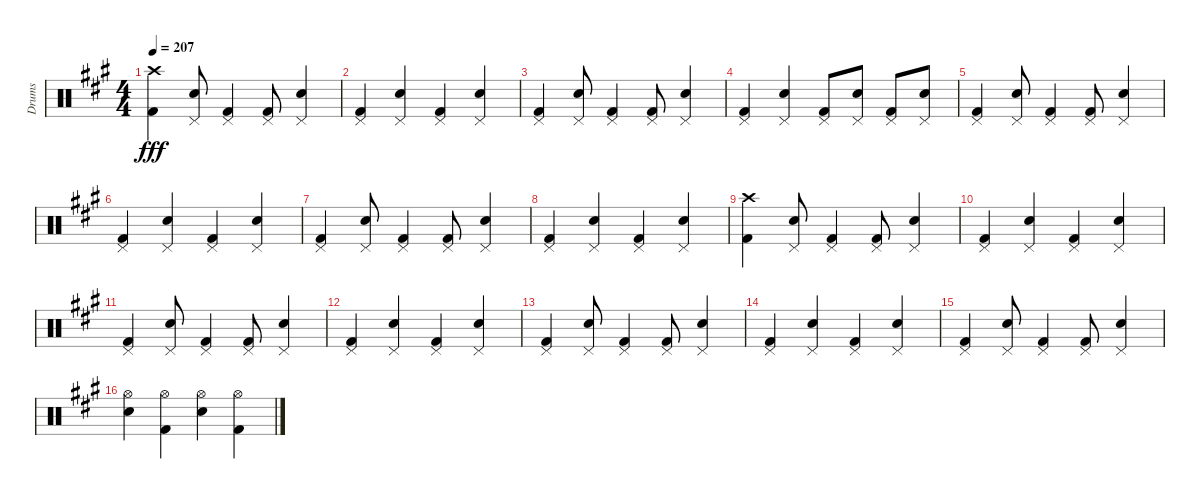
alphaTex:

\track ("Drums" "Drums") {instrument percussion}
\staff {score}
\articulation defaults
\ts (4 4)
\tempo 207
\clef neutral
\ks a
("Crash high (hit)" "Kick (hit) 2").4{dy fff} ("Pedal Hi-Hat (hit)" "Snare (hit) 2").8 ("Pedal Hi-Hat (hit)" "Kick (hit) 2").4 ("Pedal Hi-Hat (hit)" "Kick (hit) 2").8 ("Pedal Hi-Hat (hit)" "Snare (hit) 2").4 |
("Pedal Hi-Hat (hit)" "Kick (hit) 2").4 ("Pedal Hi-Hat (hit)" "Snare (hit) 2").4 ("Pedal Hi-Hat (hit)" "Kick (hit) 2").4 ("Pedal Hi-Hat (hit)" "Snare (hit) 2").4 |
("Pedal Hi-Hat (hit)" "Kick (hit) 2").4 ("Pedal Hi-Hat (hit)" "Snare (hit) 2").8 ("Pedal Hi-Hat (hit)" "Kick (hit) 2").4 ("Pedal Hi-Hat (hit)" "Kick (hit) 2").8 ("Pedal Hi-Hat (hit)" "Snare (hit) 2").4 |
("Pedal Hi-Hat (hit)" "Kick (hit) 2").4 ("Pedal Hi-Hat (hit)" "Snare (hit) 2").4 ("Pedal Hi-Hat (hit)" "Kick (hit) 2").8 ("Pedal Hi-Hat (hit)" "Snare (hit) 2").8 ("Pedal Hi-Hat (hit)" "Kick (hit) 2").8 ("Pedal Hi-Hat (hit)" "Snare (hit) 2").8 |
("Pedal Hi-Hat (hit)" "Kick (hit) 2").4 ("Pedal Hi-Hat (hit)" "Snare (hit) 2").8 ("Pedal Hi-Hat (hit)" "Kick (hit) 2").4 ("Pedal Hi-Hat (hit)" "Kick (hit) 2").8 ("Pedal Hi-Hat (hit)" "Snare (hit) 2").4 |
("Pedal Hi-Hat (hit)" "Kick (hit) 2").4 ("Pedal Hi-Hat (hit)" "Snare (hit) 2").4 ("Pedal Hi-Hat (hit)" "Kick (hit) 2").4 ("Pedal Hi-Hat (hit)" "Snare (hit) 2").4 |
("Pedal Hi-Hat (hit)" "Kick (hit) 2").4 ("Pedal Hi-Hat (hit)" "Snare (hit) 2").8 ("Pedal Hi-Hat (hit)" "Kick (hit) 2").4 ("Pedal Hi-Hat (hit)" "Kick (hit) 2").8 ("Pedal Hi-Hat (hit)" "Snare (hit) 2").4 |
("Pedal Hi-Hat (hit)" "Kick (hit) 2").4 ("Pedal Hi-Hat (hit)" "Snare (hit) 2").4 ("Pedal Hi-Hat (hit)" "Kick (hit) 2").4 ("Pedal Hi-Hat (hit)" "Snare (hit) 2").4 |
("Crash high (hit)" "Kick (hit) 2").4 ("Pedal Hi-Hat (hit)" "Snare (hit) 2").8 ("Pedal Hi-Hat (hit)" "Kick (hit) 2").4 ("Pedal Hi-Hat (hit)" "Kick (hit) 2").8 ("Pedal Hi-Hat (hit)" "Snare (hit) 2").4 |
("Pedal Hi-Hat (hit)" "Kick (hit) 2").4 ("Pedal Hi-Hat (hit)" "Snare (hit) 2").4 ("Pedal Hi-Hat (hit)" "Kick (hit) 2").4 ("Pedal Hi-Hat (hit)" "Snare (hit) 2").4 |
("Pedal Hi-Hat (hit)" "Kick (hit) 2").4 ("Pedal Hi-Hat (hit)" "Snare (hit) 2").8 ("Pedal Hi-Hat (hit)" "Kick (hit) 2").4 ("Pedal Hi-Hat (hit)" "Kick (hit) 2").8 ("Pedal Hi-Hat (hit)" "Snare (hit) 2").4 |
("Pedal Hi-Hat (hit)" "Kick (hit) 2").4 ("Pedal Hi-Hat (hit)" "Snare (hit) 2").4 ("Pedal Hi-Hat (hit)" "Kick (hit) 2").4 ("Pedal Hi-Hat (hit)" "Snare (hit) 2").4 |
("Pedal Hi-Hat (hit)" "Kick (hit) 2").4 ("Pedal Hi-Hat (hit)" "Snare (hit) 2").8 ("Pedal Hi-Hat (hit)" "Kick (hit) 2").4 ("Pedal Hi-Hat (hit)" "Kick (hit) 2").8 ("Pedal Hi-Hat (hit)" "Snare (hit) 2").4 |
("Pedal Hi-Hat (hit)" "Kick (hit) 2").4 ("Pedal Hi-Hat (hit)" "Snare (hit) 2").4 ("Pedal Hi-Hat (hit)" "Kick (hit) 2").4 ("Pedal Hi-Hat (hit)" "Snare (hit) 2").4 |
("Pedal Hi-Hat (hit)" "Kick (hit) 2").4 ("Pedal Hi-Hat (hit)" "Snare (hit) 2").8 ("Pedal Hi-Hat (hit)" "Kick (hit) 2").4 ("Pedal Hi-Hat (hit)" "Kick (hit) 2").8 ("Pedal Hi-Hat (hit)" "Snare (hit) 2").4 |
("Hi-Hat (open)" "Snare (hit) 2").4 ("Hi-Hat (open)" "Kick (hit) 2").4 ("Hi-Hat (open)" "Snare (hit) 2").4 ("Hi-Hat (open)" "Kick (hit) 2").4
